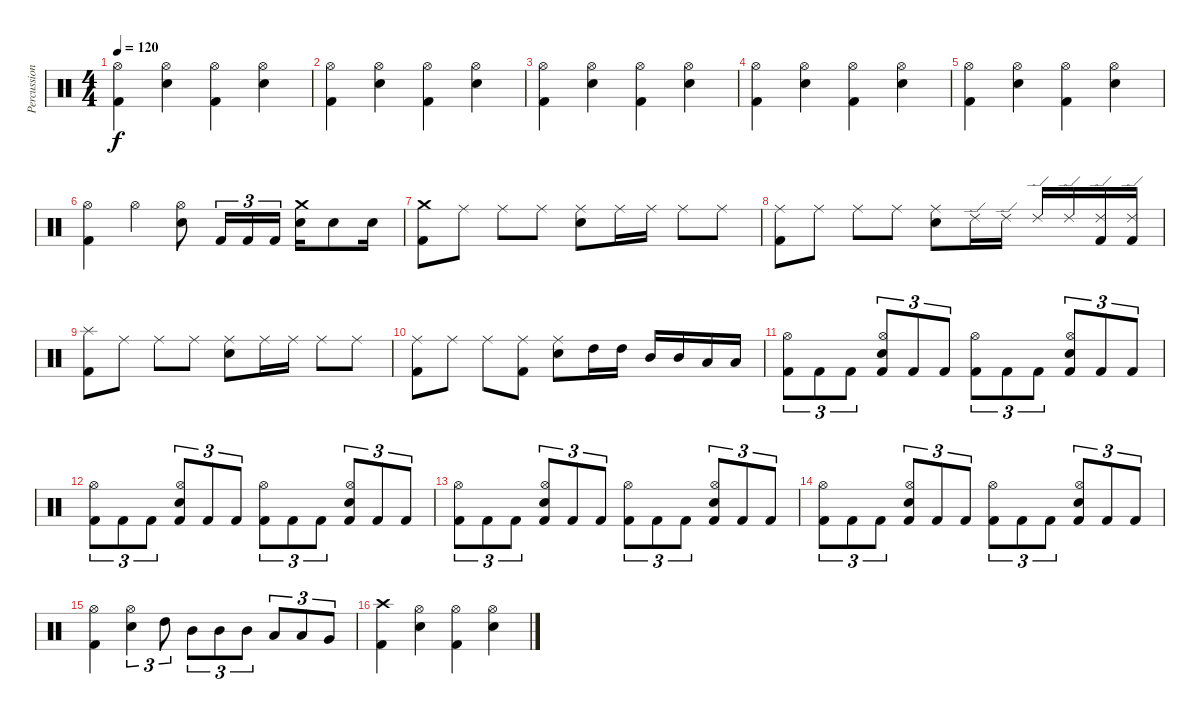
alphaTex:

\track ("Percussions" "Percussion") {instrument percussion}
\staff {score}
\articulation defaults
\ts (4 4)
\tempo 120
\clef neutral
\ks c
("Kick (hit) 2" "Hi-Hat (open)").4{dy f} ("Electric Snare (hit)" "Hi-Hat (open)").4 ("Kick (hit) 2" "Hi-Hat (open)").4 ("Electric Snare (hit)" "Hi-Hat (open)").4 |
("Kick (hit) 2" "Hi-Hat (open)").4 ("Electric Snare (hit)" "Hi-Hat (open)").4 ("Kick (hit) 2" "Hi-Hat (open)").4 ("Electric Snare (hit)" "Hi-Hat (open)").4 |
("Kick (hit) 2" "Hi-Hat (open)").4 ("Electric Snare (hit)" "Hi-Hat (open)").4 ("Kick (hit) 2" "Hi-Hat (open)").4 ("Electric Snare (hit)" "Hi-Hat (open)").4 |
("Kick (hit) 2" "Hi-Hat (open)").4 ("Electric Snare (hit)" "Hi-Hat (open)").4 ("Kick (hit) 2" "Hi-Hat (open)").4 ("Electric Snare (hit)" "Hi-Hat (open)").4 |
("Kick (hit) 2" "Hi-Hat (open)").4 ("Electric Snare (hit)" "Hi-Hat (open)").4 ("Kick (hit) 2" "Hi-Hat (open)").4 ("Electric Snare (hit)" "Hi-Hat (open)").4 |
("Kick (hit) 2" "Hi-Hat (open)").4 "Hi-Hat (open)".4 ("Electric Snare (hit)" "Hi-Hat (open)").8 "Kick (hit) 2".16{tu (3 2)} "Kick (hit) 2".16{tu (3 2)} "Kick (hit) 2".16{tu (3 2)} ("Electric Snare (hit)" "Crash medium (hit)").16 "Electric Snare (hit)".8 "Electric Snare (hit)".16 |
("Kick (hit) 2" "Crash medium (hit)").8 "Ride (middle)".8 "Ride (middle)".8 "Ride (middle)".8 ("Electric Snare (hit)" "Ride (middle)").8 "Ride (middle)".16 "Ride (middle)".16 "Ride (middle)".8 "Ride (middle)".8 |
("Kick (hit) 2" "Ride (middle)").8 "Ride (middle)".8 "Ride (middle)".8 "Ride (middle)".8 ("Electric Snare (hit)" "Ride (middle)").8 "Ride (edge) 2".16 "Ride (edge) 2".16 "Ride (edge) 2".16 "Ride (edge) 2".16 ("Kick (hit) 2" "Ride (edge) 2").16 ("Kick (hit) 2" "Ride (edge) 2").16 |
("Kick (hit) 2" "Splash (hit)").8 "Ride (middle)".8 "Ride (middle)".8 "Ride (middle)".8 ("Electric Snare (hit)" "Ride (middle)").8 "Ride (middle)".16 "Ride (middle)".16 "Ride (middle)".8 "Ride (middle)".8 |
("Kick (hit) 2" "Ride (middle)").8 "Ride (middle)".8 "Ride (middle)".8 ("Kick (hit) 2" "Ride (middle)").8 ("Electric Snare (hit)" "Ride (middle)").8 "High Tom (hit)".16 "High Tom (hit)".16 "Mid Tom (hit)".16 "Mid Tom (hit)".16 "Low Tom (hit)".16 "Low Tom (hit)".16 |
("Kick (hit) 2" "Hi-Hat (open)").8{tu (3 2)} "Kick (hit) 2".8{tu (3 2)} "Kick (hit) 2".8{tu (3 2)} ("Kick (hit) 2" "Electric Snare (hit)" "Hi-Hat (open)").8{tu (3 2)} "Kick (hit) 2".8{tu (3 2)} "Kick (hit) 2".8{tu (3 2)} ("Kick (hit) 2" "Hi-Hat (open)").8{tu (3 2)} "Kick (hit) 2".8{tu (3 2)} "Kick (hit) 2".8{tu (3 2)} ("Kick (hit) 2" "Electric Snare (hit)" "Hi-Hat (open)").8{tu (3 2)} "Kick (hit) 2".8{tu (3 2)} "Kick (hit) 2".8{tu (3 2)} |
("Kick (hit) 2" "Hi-Hat (open)").8{tu (3 2)} "Kick (hit) 2".8{tu (3 2)} "Kick (hit) 2".8{tu (3 2)} ("Kick (hit) 2" "Electric Snare (hit)" "Hi-Hat (open)").8{tu (3 2)} "Kick (hit) 2".8{tu (3 2)} "Kick (hit) 2".8{tu (3 2)} ("Kick (hit) 2" "Hi-Hat (open)").8{tu (3 2)} "Kick (hit) 2".8{tu (3 2)} "Kick (hit) 2".8{tu (3 2)} ("Kick (hit) 2" "Electric Snare (hit)" "Hi-Hat (open)").8{tu (3 2)} "Kick (hit) 2".8{tu (3 2)} "Kick (hit) 2".8{tu (3 2)} |
("Kick (hit) 2" "Hi-Hat (open)").8{tu (3 2)} "Kick (hit) 2".8{tu (3 2)} "Kick (hit) 2".8{tu (3 2)} ("Kick (hit) 2" "Electric Snare (hit)" "Hi-Hat (open)").8{tu (3 2)} "Kick (hit) 2".8{tu (3 2)} "Kick (hit) 2".8{tu (3 2)} ("Kick (hit) 2" "Hi-Hat (open)").8{tu (3 2)} "Kick (hit) 2".8{tu (3 2)} "Kick (hit) 2".8{tu (3 2)} ("Kick (hit) 2" "Electric Snare (hit)" "Hi-Hat (open)").8{tu (3 2)} "Kick (hit) 2".8{tu (3 2)} "Kick (hit) 2".8{tu (3 2)} |
("Kick (hit) 2" "Hi-Hat (open)").8{tu (3 2)} "Kick (hit) 2".8{tu (3 2)} "Kick (hit) 2".8{tu (3 2)} ("Kick (hit) 2" "Electric Snare (hit)" "Hi-Hat (open)").8{tu (3 2)} "Kick (hit) 2".8{tu (3 2)} "Kick (hit) 2".8{tu (3 2)} ("Kick (hit) 2" "Hi-Hat (open)").8{tu (3 2)} "Kick (hit) 2".8{tu (3 2)} "Kick (hit) 2".8{tu (3 2)} ("Kick (hit) 2" "Electric Snare (hit)" "Hi-Hat (open)").8{tu (3 2)} "Kick (hit) 2".8{tu (3 2)} "Kick (hit) 2".8{tu (3 2)} |
("Kick (hit) 2" "Hi-Hat (open)").4 ("Electric Snare (hit)" "Hi-Hat (open)").4{tu (3 2)} "High Tom (hit)".8{tu (3 2)} "Mid Tom (hit)".8{tu (3 2)} "Mid Tom (hit)".8{tu (3 2)} "Mid Tom (hit)".8{tu (3 2)} "Low Tom (hit)".8{tu (3 2)} "Low Tom (hit)".8{tu (3 2)} "Very Low Tom (hit)".8{tu (3 2)} |
("Kick (hit) 2" "Crash high (hit)").4 ("Electric Snare (hit)" "Hi-Hat (open)").4 ("Kick (hit) 2" "Hi-Hat (open)").4 ("Electric Snare (hit)" "Hi-Hat (open)").4
